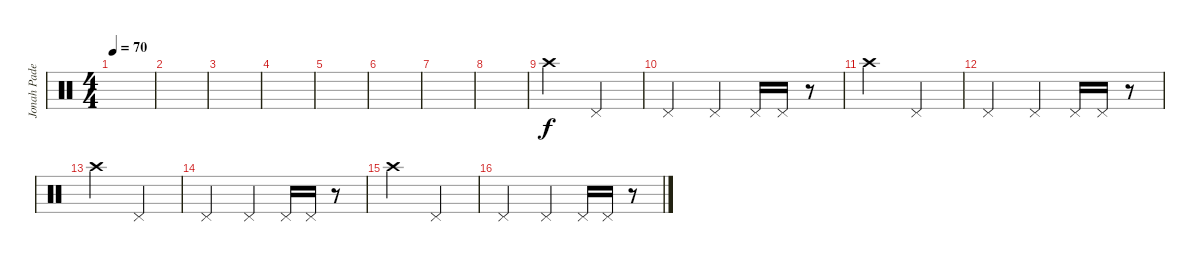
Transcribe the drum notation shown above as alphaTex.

\track ("Jonah Padella" "Jonah Pade") {instrument percussion}
\staff {score}
\articulation defaults
\ts (4 4)
\tempo 70
\clef neutral
\ks c
|
|
|
|
|
|
|
|
"Crash high (hit)".2 "Pedal Hi-Hat (hit)".2 |
"Pedal Hi-Hat (hit)".2 "Pedal Hi-Hat (hit)".4 "Pedal Hi-Hat (hit)".16 "Pedal Hi-Hat (hit)".16 r.8 |
"Crash high (hit)".2 "Pedal Hi-Hat (hit)".2 |
"Pedal Hi-Hat (hit)".2 "Pedal Hi-Hat (hit)".4 "Pedal Hi-Hat (hit)".16 "Pedal Hi-Hat (hit)".16 r.8 |
"Crash high (hit)".2 "Pedal Hi-Hat (hit)".2 |
"Pedal Hi-Hat (hit)".2 "Pedal Hi-Hat (hit)".4 "Pedal Hi-Hat (hit)".16 "Pedal Hi-Hat (hit)".16 r.8 |
"Crash high (hit)".2 "Pedal Hi-Hat (hit)".2 |
"Pedal Hi-Hat (hit)".2 "Pedal Hi-Hat (hit)".4 "Pedal Hi-Hat (hit)".16 "Pedal Hi-Hat (hit)".16 r.8
